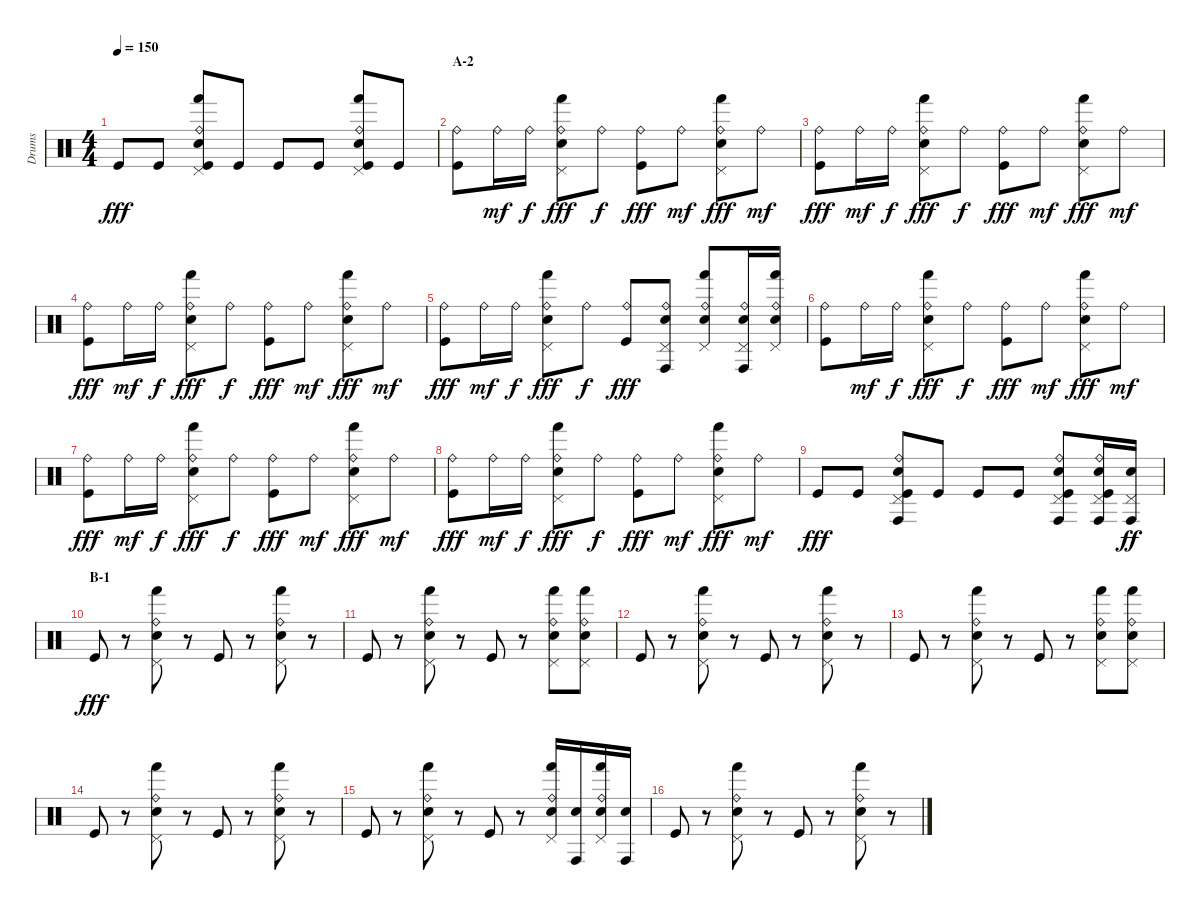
\track ("Drums" "Drums") {instrument percussion}
\staff {score}
\articulation defaults
\ts (4 4)
\tempo 150
\clef neutral
\ks c "Kick (hit)".8{dy fff} "Kick (hit)".8
("Ride (bell)" "Pedal Hi-Hat (hit)" "Hand (hit)" "Electric Snare (hit)" "Kick (hit)").8 "Kick (hit)".8 "Kick (hit)".8 "Kick (hit)".8 ("Ride (bell)" "Pedal Hi-Hat (hit)" "Hand (hit)" "Electric Snare (hit)" "Kick (hit)").8 "Kick (hit)".8 |
\section ("" "A-2")
("Ride (bell)" "Kick (hit)").8 "Ride (bell)".16{dy mf} "Ride (bell)".16{dy f} ("Ride (bell)" "Pedal Hi-Hat (hit)" "Hand (hit)" "Electric Snare (hit)").8{dy fff} "Ride (bell)".8{dy f} ("Ride (bell)" "Kick (hit)").8{dy fff} "Ride (bell)".8{dy mf} ("Ride (bell)" "Pedal Hi-Hat (hit)" "Hand (hit)" "Electric Snare (hit)").8{dy fff} "Ride (bell)".8{dy mf} |
("Ride (bell)" "Kick (hit)").8{dy fff} "Ride (bell)".16{dy mf} "Ride (bell)".16{dy f} ("Ride (bell)" "Pedal Hi-Hat (hit)" "Hand (hit)" "Electric Snare (hit)").8{dy fff} "Ride (bell)".8{dy f} ("Ride (bell)" "Kick (hit)").8{dy fff} "Ride (bell)".8{dy mf} ("Ride (bell)" "Pedal Hi-Hat (hit)" "Hand (hit)" "Electric Snare (hit)").8{dy fff} "Ride (bell)".8{dy mf} |
("Ride (bell)" "Kick (hit)").8{dy fff} "Ride (bell)".16{dy mf} "Ride (bell)".16{dy f} ("Ride (bell)" "Pedal Hi-Hat (hit)" "Hand (hit)" "Electric Snare (hit)").8{dy fff} "Ride (bell)".8{dy f} ("Ride (bell)" "Kick (hit)").8{dy fff} "Ride (bell)".8{dy mf} ("Ride (bell)" "Pedal Hi-Hat (hit)" "Hand (hit)" "Electric Snare (hit)").8{dy fff} "Ride (bell)".8{dy mf} |
("Ride (bell)" "Kick (hit)").8{dy fff} "Ride (bell)".16{dy mf} "Ride (bell)".16{dy f} ("Ride (bell)" "Pedal Hi-Hat (hit)" "Hand (hit)" "Electric Snare (hit)").8{dy fff} "Ride (bell)".8{dy f} ("Ride (bell)" "Kick (hit)").8{dy fff} ("Ride (bell)" "Pedal Hi-Hat (hit)" "Conga high (hit)" "Electric Snare (hit)").8 ("Ride (bell)" "Pedal Hi-Hat (hit)" "Hand (hit)" "Electric Snare (hit)").8 ("Ride (bell)" "Pedal Hi-Hat (hit)" "Conga high (hit)" "Electric Snare (hit)").16 ("Ride (bell)" "Pedal Hi-Hat (hit)" "Hand (hit)" "Electric Snare (hit)").16 |
("Ride (bell)" "Kick (hit)").8 "Ride (bell)".16{dy mf} "Ride (bell)".16{dy f} ("Ride (bell)" "Pedal Hi-Hat (hit)" "Hand (hit)" "Electric Snare (hit)").8{dy fff} "Ride (bell)".8{dy f} ("Ride (bell)" "Kick (hit)").8{dy fff} "Ride (bell)".8{dy mf} ("Ride (bell)" "Pedal Hi-Hat (hit)" "Hand (hit)" "Electric Snare (hit)").8{dy fff} "Ride (bell)".8{dy mf} |
("Ride (bell)" "Kick (hit)").8{dy fff} "Ride (bell)".16{dy mf} "Ride (bell)".16{dy f} ("Ride (bell)" "Pedal Hi-Hat (hit)" "Hand (hit)" "Electric Snare (hit)").8{dy fff} "Ride (bell)".8{dy f} ("Ride (bell)" "Kick (hit)").8{dy fff} "Ride (bell)".8{dy mf} ("Ride (bell)" "Pedal Hi-Hat (hit)" "Hand (hit)" "Electric Snare (hit)").8{dy fff} "Ride (bell)".8{dy mf} |
("Ride (bell)" "Kick (hit)").8{dy fff} "Ride (bell)".16{dy mf} "Ride (bell)".16{dy f} ("Ride (bell)" "Pedal Hi-Hat (hit)" "Hand (hit)" "Electric Snare (hit)").8{dy fff} "Ride (bell)".8{dy f} ("Ride (bell)" "Kick (hit)").8{dy fff} "Ride (bell)".8{dy mf} ("Ride (bell)" "Pedal Hi-Hat (hit)" "Hand (hit)" "Electric Snare (hit)").8{dy fff} "Ride (bell)".8{dy mf} |
"Kick (hit)".8{dy fff} "Kick (hit)".8 ("Ride (bell)" "Pedal Hi-Hat (hit)" "Conga high (hit)" "Electric Snare (hit)" "Kick (hit)").8 "Kick (hit)".8 "Kick (hit)".8 "Kick (hit)".8 ("Ride (bell)" "Pedal Hi-Hat (hit)" "Conga high (hit)" "Electric Snare (hit)" "Kick (hit)").8 ("Ride (bell)" "Pedal Hi-Hat (hit)" "Conga high (hit)" "Electric Snare (hit)" "Kick (hit)").16 ("Pedal Hi-Hat (hit)" "Conga high (hit)" "Electric Snare (hit)").16{dy ff} |
\section ("" "B-1")
"Kick (hit)".8{dy fff} r.8 ("Ride (bell)" "Pedal Hi-Hat (hit)" "Hand (hit)" "Electric Snare (hit)").8 r.8 "Kick (hit)".8 r.8 ("Ride (bell)" "Pedal Hi-Hat (hit)" "Hand (hit)" "Electric Snare (hit)").8 r.8 |
"Kick (hit)".8 r.8 ("Ride (bell)" "Pedal Hi-Hat (hit)" "Hand (hit)" "Electric Snare (hit)").8 r.8 "Kick (hit)".8 r.8 ("Ride (bell)" "Pedal Hi-Hat (hit)" "Hand (hit)" "Electric Snare (hit)").8 ("Ride (bell)" "Pedal Hi-Hat (hit)" "Hand (hit)" "Electric Snare (hit)").8 |
"Kick (hit)".8 r.8 ("Ride (bell)" "Pedal Hi-Hat (hit)" "Hand (hit)" "Electric Snare (hit)").8 r.8 "Kick (hit)".8 r.8 ("Ride (bell)" "Pedal Hi-Hat (hit)" "Hand (hit)" "Electric Snare (hit)").8 r.8 |
"Kick (hit)".8 r.8 ("Ride (bell)" "Pedal Hi-Hat (hit)" "Hand (hit)" "Electric Snare (hit)").8 r.8 "Kick (hit)".8 r.8 ("Ride (bell)" "Pedal Hi-Hat (hit)" "Hand (hit)" "Electric Snare (hit)").8 ("Ride (bell)" "Pedal Hi-Hat (hit)" "Hand (hit)" "Electric Snare (hit)").8 |
"Kick (hit)".8 r.8 ("Ride (bell)" "Pedal Hi-Hat (hit)" "Hand (hit)" "Electric Snare (hit)").8 r.8 "Kick (hit)".8 r.8 ("Ride (bell)" "Pedal Hi-Hat (hit)" "Hand (hit)" "Electric Snare (hit)").8 r.8 |
"Kick (hit)".8 r.8 ("Ride (bell)" "Pedal Hi-Hat (hit)" "Hand (hit)" "Electric Snare (hit)").8 r.8 "Kick (hit)".8 r.8 ("Ride (bell)" "Pedal Hi-Hat (hit)" "Hand (hit)" "Electric Snare (hit)").16 ("Conga high (hit)" "Electric Snare (hit)").16 ("Ride (bell)" "Pedal Hi-Hat (hit)" "Hand (hit)" "Electric Snare (hit)").16 ("Conga high (hit)" "Electric Snare (hit)").16 |
"Kick (hit)".8 r.8 ("Ride (bell)" "Pedal Hi-Hat (hit)" "Hand (hit)" "Electric Snare (hit)").8 r.8 "Kick (hit)".8 r.8 ("Ride (bell)" "Pedal Hi-Hat (hit)" "Hand (hit)" "Electric Snare (hit)").8 r.8
